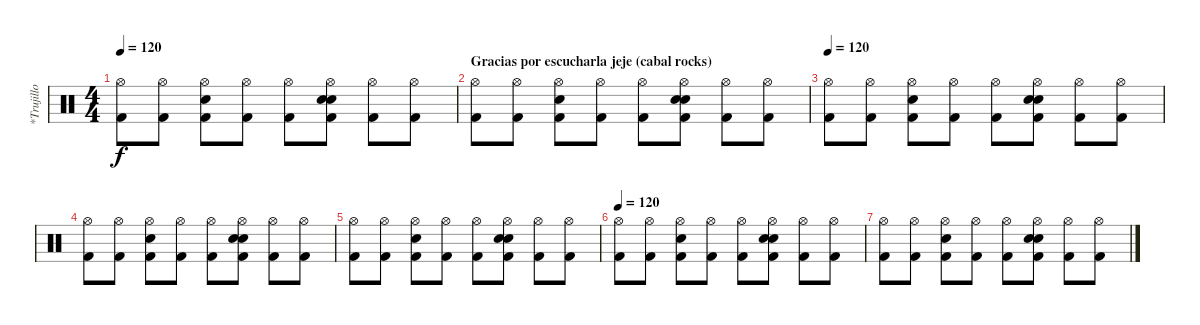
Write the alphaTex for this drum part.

\track ("*Trujillo" "*Trujillo") {instrument percussion}
\staff {score}
\articulation defaults
\ts (4 4)
\tempo 120
\clef neutral
\ks c
("Hi-Hat (open)" "Kick (hit) 2").8{dy f} ("Hi-Hat (open)" "Kick (hit) 2").8 ("Hi-Hat (open)" "Electric Snare (hit)" "Kick (hit) 2").8 ("Hi-Hat (open)" "Kick (hit) 2").8 ("Hi-Hat (open)" "Kick (hit) 2").8 ("Hi-Hat (open)" "Electric Snare (hit)" "Snare (hit)" "Kick (hit) 2").8 ("Hi-Hat (open)" "Kick (hit) 2").8 ("Hi-Hat (open)" "Kick (hit) 2").8 |
\section ("" "Gracias por escucharla jeje (cabal rocks)")
("Hi-Hat (open)" "Kick (hit) 2").8 ("Hi-Hat (open)" "Kick (hit) 2").8 ("Hi-Hat (open)" "Electric Snare (hit)" "Kick (hit) 2").8 ("Hi-Hat (open)" "Kick (hit) 2").8 ("Hi-Hat (open)" "Kick (hit) 2").8 ("Hi-Hat (open)" "Electric Snare (hit)" "Snare (hit)" "Kick (hit) 2").8 ("Hi-Hat (open)" "Kick (hit) 2").8 ("Hi-Hat (open)" "Kick (hit) 2").8 |
\tempo 120
("Hi-Hat (open)" "Kick (hit) 2").8 ("Hi-Hat (open)" "Kick (hit) 2").8 ("Hi-Hat (open)" "Electric Snare (hit)" "Kick (hit) 2").8 ("Hi-Hat (open)" "Kick (hit) 2").8 ("Hi-Hat (open)" "Kick (hit) 2").8 ("Hi-Hat (open)" "Electric Snare (hit)" "Snare (hit)" "Kick (hit) 2").8 ("Hi-Hat (open)" "Kick (hit) 2").8 ("Hi-Hat (open)" "Kick (hit) 2").8 |
("Hi-Hat (open)" "Kick (hit) 2").8 ("Hi-Hat (open)" "Kick (hit) 2").8 ("Hi-Hat (open)" "Electric Snare (hit)" "Kick (hit) 2").8 ("Hi-Hat (open)" "Kick (hit) 2").8 ("Hi-Hat (open)" "Kick (hit) 2").8 ("Hi-Hat (open)" "Electric Snare (hit)" "Snare (hit)" "Kick (hit) 2").8 ("Hi-Hat (open)" "Kick (hit) 2").8 ("Hi-Hat (open)" "Kick (hit) 2").8 |
("Hi-Hat (open)" "Kick (hit) 2").8 ("Hi-Hat (open)" "Kick (hit) 2").8 ("Hi-Hat (open)" "Electric Snare (hit)" "Kick (hit) 2").8 ("Hi-Hat (open)" "Kick (hit) 2").8 ("Hi-Hat (open)" "Kick (hit) 2").8 ("Hi-Hat (open)" "Electric Snare (hit)" "Snare (hit)" "Kick (hit) 2").8 ("Hi-Hat (open)" "Kick (hit) 2").8 ("Hi-Hat (open)" "Kick (hit) 2").8 |
\tempo 120
("Hi-Hat (open)" "Kick (hit) 2").8 ("Hi-Hat (open)" "Kick (hit) 2").8 ("Hi-Hat (open)" "Electric Snare (hit)" "Kick (hit) 2").8 ("Hi-Hat (open)" "Kick (hit) 2").8 ("Hi-Hat (open)" "Kick (hit) 2").8 ("Hi-Hat (open)" "Electric Snare (hit)" "Snare (hit)" "Kick (hit) 2").8 ("Hi-Hat (open)" "Kick (hit) 2").8 ("Hi-Hat (open)" "Kick (hit) 2").8 |
("Hi-Hat (open)" "Kick (hit) 2").8 ("Hi-Hat (open)" "Kick (hit) 2").8 ("Hi-Hat (open)" "Electric Snare (hit)" "Kick (hit) 2").8 ("Hi-Hat (open)" "Kick (hit) 2").8 ("Hi-Hat (open)" "Kick (hit) 2").8 ("Hi-Hat (open)" "Electric Snare (hit)" "Snare (hit)" "Kick (hit) 2").8 ("Hi-Hat (open)" "Kick (hit) 2").8 ("Hi-Hat (open)" "Kick (hit) 2").8
